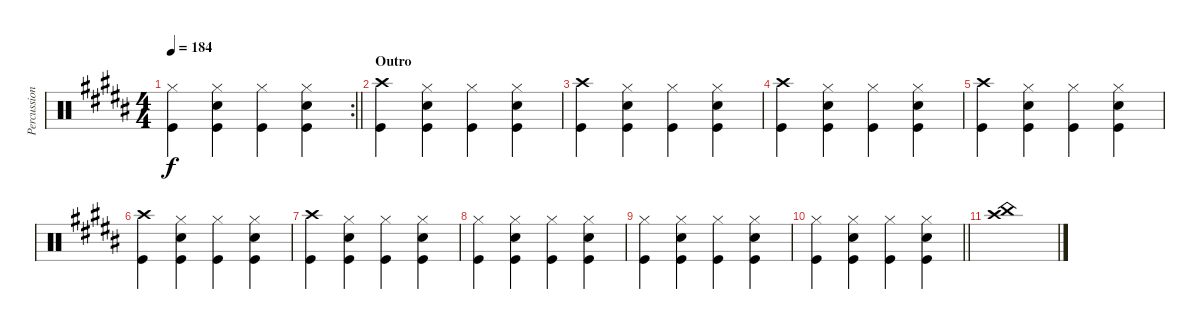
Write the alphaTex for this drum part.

\track ("Percussion" "Percussion") {instrument percussion}
\staff {score}
\articulation defaults
\rc 2
\ts (4 4)
\tempo 184
\clef neutral
\barLineRight lightlight
\ks b
("Hi-Hat (closed)" "Kick (hit)").4{dy f} ("Hi-Hat (closed)" "Kick (hit)" "Snare (hit) 2").4 ("Hi-Hat (closed)" "Kick (hit)").4 ("Hi-Hat (closed)" "Kick (hit)" "Snare (hit) 2").4 |
\section ("" "Outro")
("Crash high (hit)" "Kick (hit)").4 ("Snare (hit) 2" "Kick (hit)" "Hi-Hat (closed)").4 ("Kick (hit)" "Hi-Hat (closed)").4 ("Snare (hit) 2" "Kick (hit)" "Hi-Hat (closed)").4 |
("Kick (hit)" "Crash high (hit)").4 ("Snare (hit) 2" "Kick (hit)" "Hi-Hat (closed)").4 ("Hi-Hat (closed)" "Kick (hit)").4 ("Snare (hit) 2" "Kick (hit)" "Hi-Hat (closed)").4 |
("Kick (hit)" "Crash high (hit)").4 ("Kick (hit)" "Hi-Hat (closed)" "Snare (hit) 2").4 ("Hi-Hat (closed)" "Kick (hit)").4 ("Hi-Hat (closed)" "Kick (hit)" "Snare (hit) 2").4 |
("Crash high (hit)" "Kick (hit)").4 ("Hi-Hat (closed)" "Kick (hit)" "Snare (hit) 2").4 ("Hi-Hat (closed)" "Kick (hit)").4 ("Hi-Hat (closed)" "Kick (hit)" "Snare (hit) 2").4 |
("Kick (hit)" "Crash high (hit)").4 ("Snare (hit) 2" "Kick (hit)" "Hi-Hat (closed)").4 ("Kick (hit)" "Hi-Hat (closed)").4 ("Snare (hit) 2" "Kick (hit)" "Hi-Hat (closed)").4 |
("Kick (hit)" "Crash high (hit)").4 ("Snare (hit) 2" "Kick (hit)" "Hi-Hat (closed)").4 ("Hi-Hat (closed)" "Kick (hit)").4 ("Snare (hit) 2" "Kick (hit)" "Hi-Hat (closed)").4 |
("Hi-Hat (closed)" "Kick (hit)").4 ("Kick (hit)" "Hi-Hat (closed)" "Snare (hit) 2").4 ("Hi-Hat (closed)" "Kick (hit)").4 ("Hi-Hat (closed)" "Kick (hit)" "Snare (hit) 2").4 |
("Hi-Hat (closed)" "Kick (hit)").4 ("Hi-Hat (closed)" "Kick (hit)" "Snare (hit) 2").4 ("Hi-Hat (closed)" "Kick (hit)").4 ("Hi-Hat (closed)" "Kick (hit)" "Snare (hit) 2").4 |
\barLineRight lightlight
("Hi-Hat (closed)" "Kick (hit)").4 ("Hi-Hat (closed)" "Kick (hit)" "Snare (hit) 2").4 ("Hi-Hat (closed)" "Kick (hit)").4 ("Hi-Hat (closed)" "Kick (hit)" "Snare (hit) 2").4 |
("Crash high (hit)" "China (hit)").1
